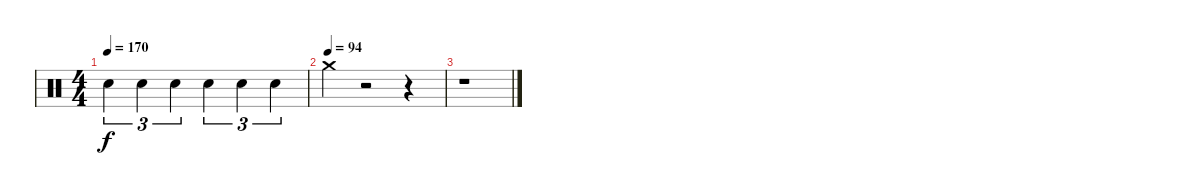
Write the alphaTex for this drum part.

\track "" {instrument percussion}
\staff {score}
\articulation defaults
\ts (4 4)
\tempo 170
\clef neutral
\ks c "Snare (hit) 2".4{tu (3 2) dy f} "Snare (hit) 2".4{tu (3 2)} "Snare (hit) 2".4{tu (3 2)} "Snare (hit) 2".4{tu (3 2)} "Snare (hit) 2".4{tu (3 2)} "Snare (hit) 2".4{tu (3 2)}
|
\tempo (94)
"Crash medium (hit)".4 r.2 r.4 |
r.1
